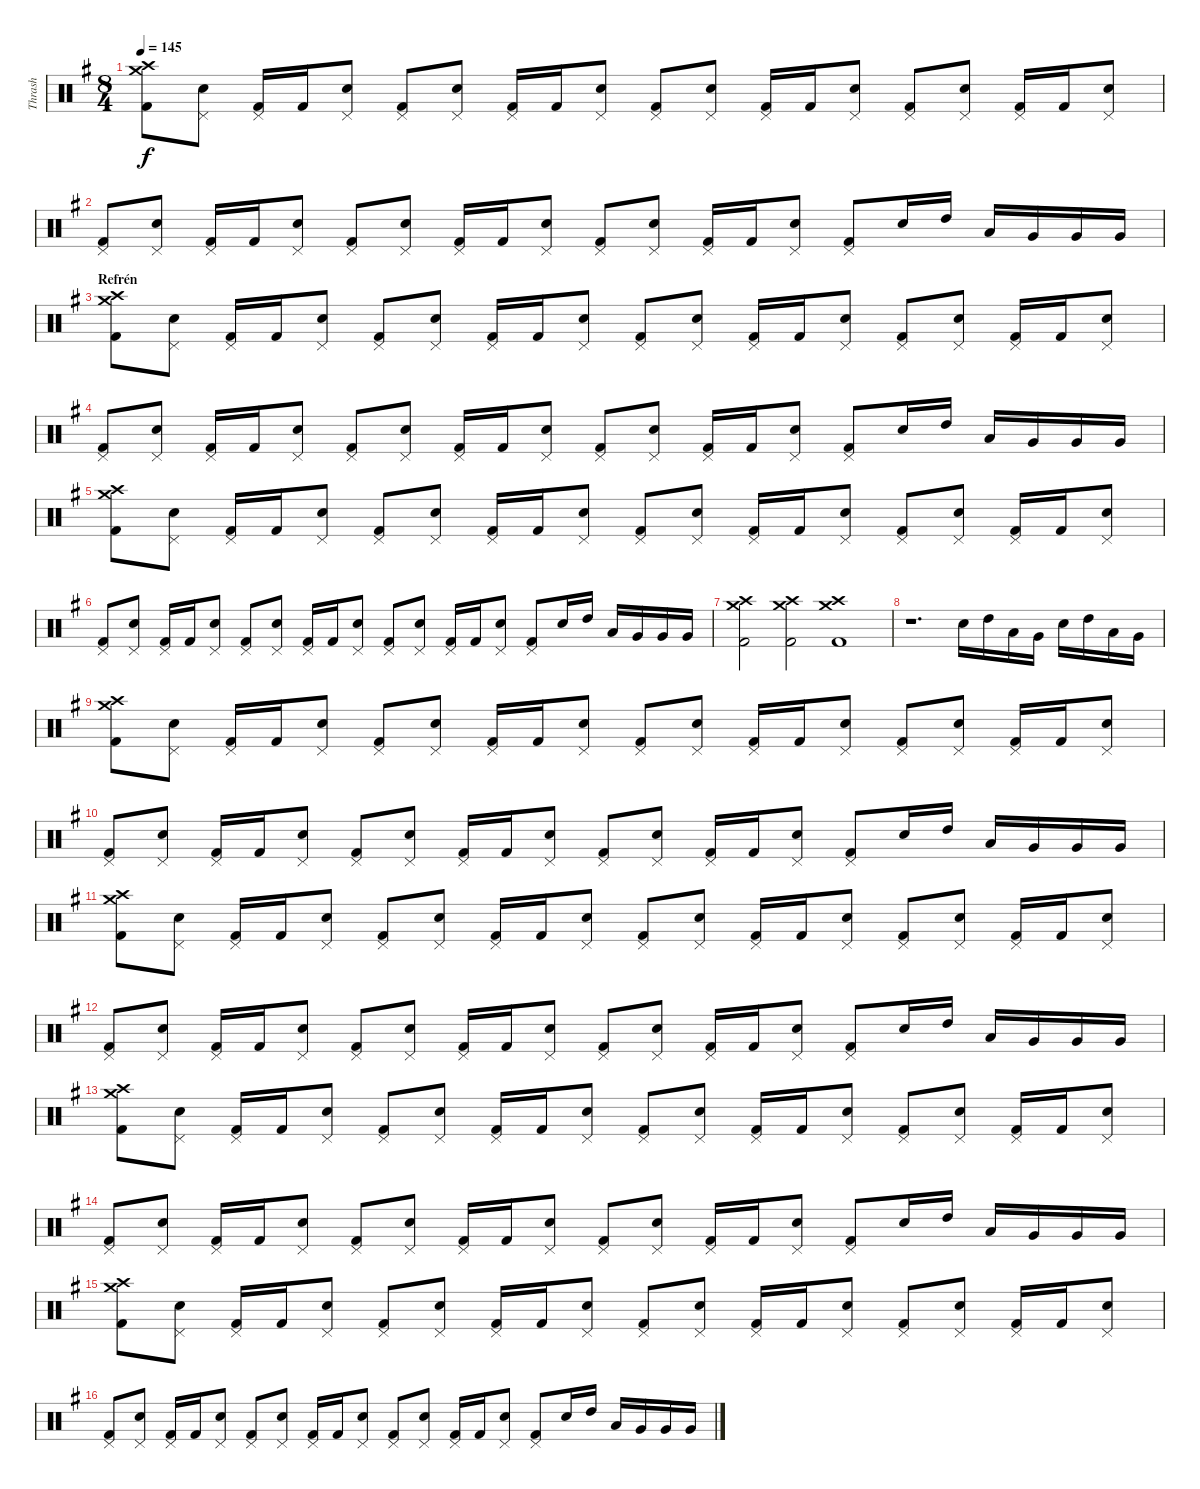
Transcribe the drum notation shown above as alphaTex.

\track ("Thrash" "Thrash") {instrument percussion}
\staff {score}
\articulation defaults
\ts (8 4)
\tempo 145
\clef neutral
\ks eminor
("Crash medium (hit)" "Crash high (hit)" "Kick (hit) 2").8{dy f} ("Pedal Hi-Hat (hit)" "Snare (hit) 2").8 ("Pedal Hi-Hat (hit)" "Kick (hit) 2").16 "Kick (hit) 2".16 ("Pedal Hi-Hat (hit)" "Snare (hit) 2").8 ("Pedal Hi-Hat (hit)" "Kick (hit) 2").8 ("Pedal Hi-Hat (hit)" "Snare (hit) 2").8 ("Pedal Hi-Hat (hit)" "Kick (hit) 2").16 "Kick (hit) 2".16 ("Pedal Hi-Hat (hit)" "Snare (hit) 2").8 ("Pedal Hi-Hat (hit)" "Kick (hit) 2").8 ("Pedal Hi-Hat (hit)" "Snare (hit) 2").8 ("Pedal Hi-Hat (hit)" "Kick (hit) 2").16 "Kick (hit) 2".16 ("Pedal Hi-Hat (hit)" "Snare (hit) 2").8 ("Pedal Hi-Hat (hit)" "Kick (hit) 2").8 ("Pedal Hi-Hat (hit)" "Snare (hit) 2").8 ("Pedal Hi-Hat (hit)" "Kick (hit) 2").16 "Kick (hit) 2".16 ("Pedal Hi-Hat (hit)" "Snare (hit) 2").8 |
("Pedal Hi-Hat (hit)" "Kick (hit) 2").8 ("Pedal Hi-Hat (hit)" "Snare (hit) 2").8 ("Pedal Hi-Hat (hit)" "Kick (hit) 2").16 "Kick (hit) 2".16 ("Pedal Hi-Hat (hit)" "Snare (hit) 2").8 ("Pedal Hi-Hat (hit)" "Kick (hit) 2").8 ("Pedal Hi-Hat (hit)" "Snare (hit) 2").8 ("Pedal Hi-Hat (hit)" "Kick (hit) 2").16 "Kick (hit) 2".16 ("Pedal Hi-Hat (hit)" "Snare (hit) 2").8 ("Pedal Hi-Hat (hit)" "Kick (hit) 2").8 ("Pedal Hi-Hat (hit)" "Snare (hit) 2").8 ("Pedal Hi-Hat (hit)" "Kick (hit) 2").16 "Kick (hit) 2".16 ("Pedal Hi-Hat (hit)" "Snare (hit) 2").8 ("Pedal Hi-Hat (hit)" "Kick (hit) 2").8 "Snare (hit) 2".16 "High Tom (hit)".16 "Low Tom (hit)".16 "Very Low Tom (hit)".16 "Very Low Tom (hit)".16 "Very Low Tom (hit)".16 |
\section ("" "Refrén")
("Crash medium (hit)" "Crash high (hit)" "Kick (hit) 2").8 ("Pedal Hi-Hat (hit)" "Snare (hit) 2").8 ("Pedal Hi-Hat (hit)" "Kick (hit) 2").16 "Kick (hit) 2".16 ("Pedal Hi-Hat (hit)" "Snare (hit) 2").8 ("Pedal Hi-Hat (hit)" "Kick (hit) 2").8 ("Pedal Hi-Hat (hit)" "Snare (hit) 2").8 ("Pedal Hi-Hat (hit)" "Kick (hit) 2").16 "Kick (hit) 2".16 ("Pedal Hi-Hat (hit)" "Snare (hit) 2").8 ("Pedal Hi-Hat (hit)" "Kick (hit) 2").8 ("Pedal Hi-Hat (hit)" "Snare (hit) 2").8 ("Pedal Hi-Hat (hit)" "Kick (hit) 2").16 "Kick (hit) 2".16 ("Pedal Hi-Hat (hit)" "Snare (hit) 2").8 ("Pedal Hi-Hat (hit)" "Kick (hit) 2").8 ("Pedal Hi-Hat (hit)" "Snare (hit) 2").8 ("Pedal Hi-Hat (hit)" "Kick (hit) 2").16 "Kick (hit) 2".16 ("Pedal Hi-Hat (hit)" "Snare (hit) 2").8 |
("Pedal Hi-Hat (hit)" "Kick (hit) 2").8 ("Pedal Hi-Hat (hit)" "Snare (hit) 2").8 ("Pedal Hi-Hat (hit)" "Kick (hit) 2").16 "Kick (hit) 2".16 ("Pedal Hi-Hat (hit)" "Snare (hit) 2").8 ("Pedal Hi-Hat (hit)" "Kick (hit) 2").8 ("Pedal Hi-Hat (hit)" "Snare (hit) 2").8 ("Pedal Hi-Hat (hit)" "Kick (hit) 2").16 "Kick (hit) 2".16 ("Pedal Hi-Hat (hit)" "Snare (hit) 2").8 ("Pedal Hi-Hat (hit)" "Kick (hit) 2").8 ("Pedal Hi-Hat (hit)" "Snare (hit) 2").8 ("Pedal Hi-Hat (hit)" "Kick (hit) 2").16 "Kick (hit) 2".16 ("Pedal Hi-Hat (hit)" "Snare (hit) 2").8 ("Pedal Hi-Hat (hit)" "Kick (hit) 2").8 "Snare (hit) 2".16 "High Tom (hit)".16 "Low Tom (hit)".16 "Very Low Tom (hit)".16 "Very Low Tom (hit)".16 "Very Low Tom (hit)".16 |
("Crash medium (hit)" "Crash high (hit)" "Kick (hit) 2").8 ("Pedal Hi-Hat (hit)" "Snare (hit) 2").8 ("Pedal Hi-Hat (hit)" "Kick (hit) 2").16 "Kick (hit) 2".16 ("Pedal Hi-Hat (hit)" "Snare (hit) 2").8 ("Pedal Hi-Hat (hit)" "Kick (hit) 2").8 ("Pedal Hi-Hat (hit)" "Snare (hit) 2").8 ("Pedal Hi-Hat (hit)" "Kick (hit) 2").16 "Kick (hit) 2".16 ("Pedal Hi-Hat (hit)" "Snare (hit) 2").8 ("Pedal Hi-Hat (hit)" "Kick (hit) 2").8 ("Pedal Hi-Hat (hit)" "Snare (hit) 2").8 ("Pedal Hi-Hat (hit)" "Kick (hit) 2").16 "Kick (hit) 2".16 ("Pedal Hi-Hat (hit)" "Snare (hit) 2").8 ("Pedal Hi-Hat (hit)" "Kick (hit) 2").8 ("Pedal Hi-Hat (hit)" "Snare (hit) 2").8 ("Pedal Hi-Hat (hit)" "Kick (hit) 2").16 "Kick (hit) 2".16 ("Pedal Hi-Hat (hit)" "Snare (hit) 2").8 |
("Pedal Hi-Hat (hit)" "Kick (hit) 2").8 ("Pedal Hi-Hat (hit)" "Snare (hit) 2").8 ("Pedal Hi-Hat (hit)" "Kick (hit) 2").16 "Kick (hit) 2".16 ("Pedal Hi-Hat (hit)" "Snare (hit) 2").8 ("Pedal Hi-Hat (hit)" "Kick (hit) 2").8 ("Pedal Hi-Hat (hit)" "Snare (hit) 2").8 ("Pedal Hi-Hat (hit)" "Kick (hit) 2").16 "Kick (hit) 2".16 ("Pedal Hi-Hat (hit)" "Snare (hit) 2").8 ("Pedal Hi-Hat (hit)" "Kick (hit) 2").8 ("Pedal Hi-Hat (hit)" "Snare (hit) 2").8 ("Pedal Hi-Hat (hit)" "Kick (hit) 2").16 "Kick (hit) 2".16 ("Pedal Hi-Hat (hit)" "Snare (hit) 2").8 ("Pedal Hi-Hat (hit)" "Kick (hit) 2").8 "Snare (hit) 2".16 "High Tom (hit)".16 "Low Tom (hit)".16 "Very Low Tom (hit)".16 "Very Low Tom (hit)".16 "Very Low Tom (hit)".16 |
("Crash medium (hit)" "Crash high (hit)" "Kick (hit) 2").2 ("Crash medium (hit)" "Crash high (hit)" "Kick (hit) 2").2 ("Crash medium (hit)" "Crash high (hit)" "Kick (hit) 2").1 |
r.1{d} "Snare (hit) 2".16 "High Tom (hit)".16 "Low Tom (hit)".16 "Very Low Tom (hit)".16 "Snare (hit) 2".16 "High Tom (hit)".16 "Low Tom (hit)".16 "Very Low Tom (hit)".16 |
("Crash medium (hit)" "Crash high (hit)" "Kick (hit) 2").8 ("Pedal Hi-Hat (hit)" "Snare (hit) 2").8 ("Pedal Hi-Hat (hit)" "Kick (hit) 2").16 "Kick (hit) 2".16 ("Pedal Hi-Hat (hit)" "Snare (hit) 2").8 ("Pedal Hi-Hat (hit)" "Kick (hit) 2").8 ("Pedal Hi-Hat (hit)" "Snare (hit) 2").8 ("Pedal Hi-Hat (hit)" "Kick (hit) 2").16 "Kick (hit) 2".16 ("Pedal Hi-Hat (hit)" "Snare (hit) 2").8 ("Pedal Hi-Hat (hit)" "Kick (hit) 2").8 ("Pedal Hi-Hat (hit)" "Snare (hit) 2").8 ("Pedal Hi-Hat (hit)" "Kick (hit) 2").16 "Kick (hit) 2".16 ("Pedal Hi-Hat (hit)" "Snare (hit) 2").8 ("Pedal Hi-Hat (hit)" "Kick (hit) 2").8 ("Pedal Hi-Hat (hit)" "Snare (hit) 2").8 ("Pedal Hi-Hat (hit)" "Kick (hit) 2").16 "Kick (hit) 2".16 ("Pedal Hi-Hat (hit)" "Snare (hit) 2").8 |
("Pedal Hi-Hat (hit)" "Kick (hit) 2").8 ("Pedal Hi-Hat (hit)" "Snare (hit) 2").8 ("Pedal Hi-Hat (hit)" "Kick (hit) 2").16 "Kick (hit) 2".16 ("Pedal Hi-Hat (hit)" "Snare (hit) 2").8 ("Pedal Hi-Hat (hit)" "Kick (hit) 2").8 ("Pedal Hi-Hat (hit)" "Snare (hit) 2").8 ("Pedal Hi-Hat (hit)" "Kick (hit) 2").16 "Kick (hit) 2".16 ("Pedal Hi-Hat (hit)" "Snare (hit) 2").8 ("Pedal Hi-Hat (hit)" "Kick (hit) 2").8 ("Pedal Hi-Hat (hit)" "Snare (hit) 2").8 ("Pedal Hi-Hat (hit)" "Kick (hit) 2").16 "Kick (hit) 2".16 ("Pedal Hi-Hat (hit)" "Snare (hit) 2").8 ("Pedal Hi-Hat (hit)" "Kick (hit) 2").8 "Snare (hit) 2".16 "High Tom (hit)".16 "Low Tom (hit)".16 "Very Low Tom (hit)".16 "Very Low Tom (hit)".16 "Very Low Tom (hit)".16 |
("Crash medium (hit)" "Crash high (hit)" "Kick (hit) 2").8 ("Pedal Hi-Hat (hit)" "Snare (hit) 2").8 ("Pedal Hi-Hat (hit)" "Kick (hit) 2").16 "Kick (hit) 2".16 ("Pedal Hi-Hat (hit)" "Snare (hit) 2").8 ("Pedal Hi-Hat (hit)" "Kick (hit) 2").8 ("Pedal Hi-Hat (hit)" "Snare (hit) 2").8 ("Pedal Hi-Hat (hit)" "Kick (hit) 2").16 "Kick (hit) 2".16 ("Pedal Hi-Hat (hit)" "Snare (hit) 2").8 ("Pedal Hi-Hat (hit)" "Kick (hit) 2").8 ("Pedal Hi-Hat (hit)" "Snare (hit) 2").8 ("Pedal Hi-Hat (hit)" "Kick (hit) 2").16 "Kick (hit) 2".16 ("Pedal Hi-Hat (hit)" "Snare (hit) 2").8 ("Pedal Hi-Hat (hit)" "Kick (hit) 2").8 ("Pedal Hi-Hat (hit)" "Snare (hit) 2").8 ("Pedal Hi-Hat (hit)" "Kick (hit) 2").16 "Kick (hit) 2".16 ("Pedal Hi-Hat (hit)" "Snare (hit) 2").8 |
("Pedal Hi-Hat (hit)" "Kick (hit) 2").8 ("Pedal Hi-Hat (hit)" "Snare (hit) 2").8 ("Pedal Hi-Hat (hit)" "Kick (hit) 2").16 "Kick (hit) 2".16 ("Pedal Hi-Hat (hit)" "Snare (hit) 2").8 ("Pedal Hi-Hat (hit)" "Kick (hit) 2").8 ("Pedal Hi-Hat (hit)" "Snare (hit) 2").8 ("Pedal Hi-Hat (hit)" "Kick (hit) 2").16 "Kick (hit) 2".16 ("Pedal Hi-Hat (hit)" "Snare (hit) 2").8 ("Pedal Hi-Hat (hit)" "Kick (hit) 2").8 ("Pedal Hi-Hat (hit)" "Snare (hit) 2").8 ("Pedal Hi-Hat (hit)" "Kick (hit) 2").16 "Kick (hit) 2".16 ("Pedal Hi-Hat (hit)" "Snare (hit) 2").8 ("Pedal Hi-Hat (hit)" "Kick (hit) 2").8 "Snare (hit) 2".16 "High Tom (hit)".16 "Low Tom (hit)".16 "Very Low Tom (hit)".16 "Very Low Tom (hit)".16 "Very Low Tom (hit)".16 |
("Crash medium (hit)" "Crash high (hit)" "Kick (hit) 2").8 ("Pedal Hi-Hat (hit)" "Snare (hit) 2").8 ("Pedal Hi-Hat (hit)" "Kick (hit) 2").16 "Kick (hit) 2".16 ("Pedal Hi-Hat (hit)" "Snare (hit) 2").8 ("Pedal Hi-Hat (hit)" "Kick (hit) 2").8 ("Pedal Hi-Hat (hit)" "Snare (hit) 2").8 ("Pedal Hi-Hat (hit)" "Kick (hit) 2").16 "Kick (hit) 2".16 ("Pedal Hi-Hat (hit)" "Snare (hit) 2").8 ("Pedal Hi-Hat (hit)" "Kick (hit) 2").8 ("Pedal Hi-Hat (hit)" "Snare (hit) 2").8 ("Pedal Hi-Hat (hit)" "Kick (hit) 2").16 "Kick (hit) 2".16 ("Pedal Hi-Hat (hit)" "Snare (hit) 2").8 ("Pedal Hi-Hat (hit)" "Kick (hit) 2").8 ("Pedal Hi-Hat (hit)" "Snare (hit) 2").8 ("Pedal Hi-Hat (hit)" "Kick (hit) 2").16 "Kick (hit) 2".16 ("Pedal Hi-Hat (hit)" "Snare (hit) 2").8 |
("Pedal Hi-Hat (hit)" "Kick (hit) 2").8 ("Pedal Hi-Hat (hit)" "Snare (hit) 2").8 ("Pedal Hi-Hat (hit)" "Kick (hit) 2").16 "Kick (hit) 2".16 ("Pedal Hi-Hat (hit)" "Snare (hit) 2").8 ("Pedal Hi-Hat (hit)" "Kick (hit) 2").8 ("Pedal Hi-Hat (hit)" "Snare (hit) 2").8 ("Pedal Hi-Hat (hit)" "Kick (hit) 2").16 "Kick (hit) 2".16 ("Pedal Hi-Hat (hit)" "Snare (hit) 2").8 ("Pedal Hi-Hat (hit)" "Kick (hit) 2").8 ("Pedal Hi-Hat (hit)" "Snare (hit) 2").8 ("Pedal Hi-Hat (hit)" "Kick (hit) 2").16 "Kick (hit) 2".16 ("Pedal Hi-Hat (hit)" "Snare (hit) 2").8 ("Pedal Hi-Hat (hit)" "Kick (hit) 2").8 "Snare (hit) 2".16 "High Tom (hit)".16 "Low Tom (hit)".16 "Very Low Tom (hit)".16 "Very Low Tom (hit)".16 "Very Low Tom (hit)".16 |
("Crash medium (hit)" "Crash high (hit)" "Kick (hit) 2").8 ("Pedal Hi-Hat (hit)" "Snare (hit) 2").8 ("Pedal Hi-Hat (hit)" "Kick (hit) 2").16 "Kick (hit) 2".16 ("Pedal Hi-Hat (hit)" "Snare (hit) 2").8 ("Pedal Hi-Hat (hit)" "Kick (hit) 2").8 ("Pedal Hi-Hat (hit)" "Snare (hit) 2").8 ("Pedal Hi-Hat (hit)" "Kick (hit) 2").16 "Kick (hit) 2".16 ("Pedal Hi-Hat (hit)" "Snare (hit) 2").8 ("Pedal Hi-Hat (hit)" "Kick (hit) 2").8 ("Pedal Hi-Hat (hit)" "Snare (hit) 2").8 ("Pedal Hi-Hat (hit)" "Kick (hit) 2").16 "Kick (hit) 2".16 ("Pedal Hi-Hat (hit)" "Snare (hit) 2").8 ("Pedal Hi-Hat (hit)" "Kick (hit) 2").8 ("Pedal Hi-Hat (hit)" "Snare (hit) 2").8 ("Pedal Hi-Hat (hit)" "Kick (hit) 2").16 "Kick (hit) 2".16 ("Pedal Hi-Hat (hit)" "Snare (hit) 2").8 |
("Pedal Hi-Hat (hit)" "Kick (hit) 2").8 ("Pedal Hi-Hat (hit)" "Snare (hit) 2").8 ("Pedal Hi-Hat (hit)" "Kick (hit) 2").16 "Kick (hit) 2".16 ("Pedal Hi-Hat (hit)" "Snare (hit) 2").8 ("Pedal Hi-Hat (hit)" "Kick (hit) 2").8 ("Pedal Hi-Hat (hit)" "Snare (hit) 2").8 ("Pedal Hi-Hat (hit)" "Kick (hit) 2").16 "Kick (hit) 2".16 ("Pedal Hi-Hat (hit)" "Snare (hit) 2").8 ("Pedal Hi-Hat (hit)" "Kick (hit) 2").8 ("Pedal Hi-Hat (hit)" "Snare (hit) 2").8 ("Pedal Hi-Hat (hit)" "Kick (hit) 2").16 "Kick (hit) 2".16 ("Pedal Hi-Hat (hit)" "Snare (hit) 2").8 ("Pedal Hi-Hat (hit)" "Kick (hit) 2").8 "Snare (hit) 2".16 "High Tom (hit)".16 "Low Tom (hit)".16 "Very Low Tom (hit)".16 "Very Low Tom (hit)".16 "Very Low Tom (hit)".16
